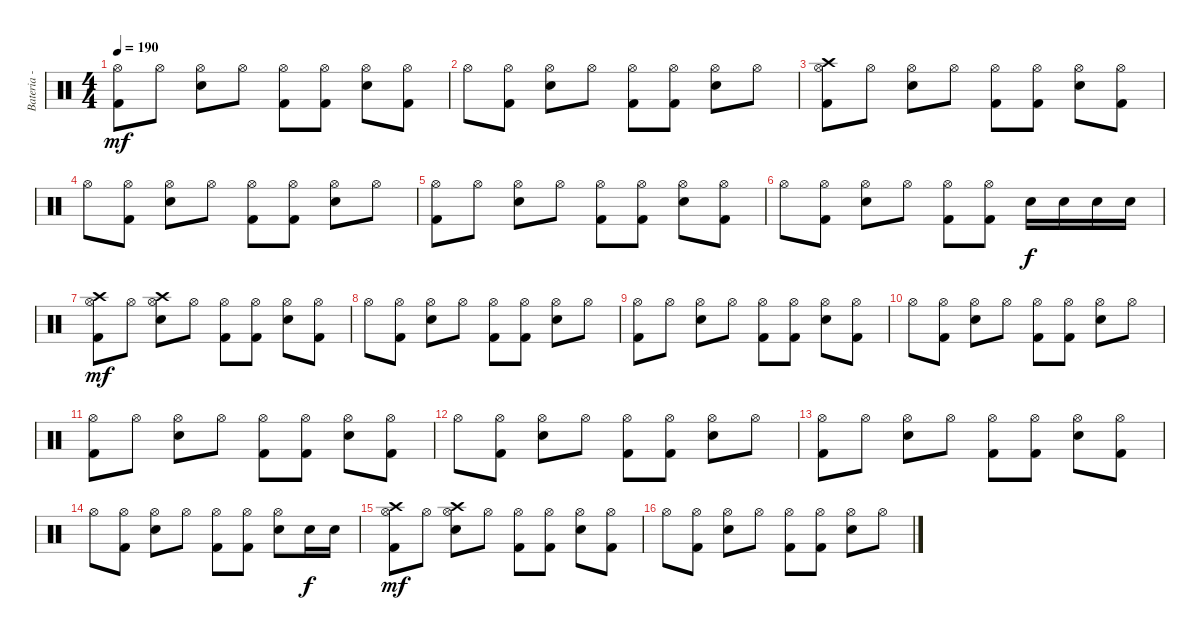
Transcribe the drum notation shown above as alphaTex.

\track ("Bateria - Larzon" "Bateria - ") {instrument percussion}
\staff {score}
\articulation defaults
\ts (4 4)
\tempo 190
\clef neutral
\ks c
("Kick (hit) 2" "Hi-Hat (open)").8{dy mf} "Hi-Hat (open)".8 ("Electric Snare (hit)" "Hi-Hat (open)").8 "Hi-Hat (open)".8 ("Kick (hit) 2" "Hi-Hat (open)").8 ("Kick (hit) 2" "Hi-Hat (open)").8 ("Electric Snare (hit)" "Hi-Hat (open)").8 ("Kick (hit) 2" "Hi-Hat (open)").8 |
"Hi-Hat (open)".8 ("Kick (hit) 2" "Hi-Hat (open)").8 ("Electric Snare (hit)" "Hi-Hat (open)").8 "Hi-Hat (open)".8 ("Kick (hit) 2" "Hi-Hat (open)").8 ("Kick (hit) 2" "Hi-Hat (open)").8 ("Electric Snare (hit)" "Hi-Hat (open)").8 "Hi-Hat (open)".8 |
("Kick (hit) 2" "Hi-Hat (open)" "Crash high (hit)").8 "Hi-Hat (open)".8 ("Electric Snare (hit)" "Hi-Hat (open)").8 "Hi-Hat (open)".8 ("Kick (hit) 2" "Hi-Hat (open)").8 ("Kick (hit) 2" "Hi-Hat (open)").8 ("Electric Snare (hit)" "Hi-Hat (open)").8 ("Kick (hit) 2" "Hi-Hat (open)").8 |
"Hi-Hat (open)".8 ("Kick (hit) 2" "Hi-Hat (open)").8 ("Electric Snare (hit)" "Hi-Hat (open)").8 "Hi-Hat (open)".8 ("Kick (hit) 2" "Hi-Hat (open)").8 ("Kick (hit) 2" "Hi-Hat (open)").8 ("Electric Snare (hit)" "Hi-Hat (open)").8 "Hi-Hat (open)".8 |
("Kick (hit) 2" "Hi-Hat (open)").8 "Hi-Hat (open)".8 ("Electric Snare (hit)" "Hi-Hat (open)").8 "Hi-Hat (open)".8 ("Kick (hit) 2" "Hi-Hat (open)").8 ("Kick (hit) 2" "Hi-Hat (open)").8 ("Electric Snare (hit)" "Hi-Hat (open)").8 ("Kick (hit) 2" "Hi-Hat (open)").8 |
"Hi-Hat (open)".8 ("Kick (hit) 2" "Hi-Hat (open)").8 ("Electric Snare (hit)" "Hi-Hat (open)").8 "Hi-Hat (open)".8 ("Kick (hit) 2" "Hi-Hat (open)").8 ("Kick (hit) 2" "Hi-Hat (open)").8 "Electric Snare (hit)".16{dy f} "Electric Snare (hit)".16 "Electric Snare (hit)".16 "Electric Snare (hit)".16 |
("Kick (hit) 2" "Hi-Hat (open)" "Crash high (hit)").8{dy mf} "Hi-Hat (open)".8 ("Electric Snare (hit)" "Hi-Hat (open)" "Crash high (hit)").8 "Hi-Hat (open)".8 ("Kick (hit) 2" "Hi-Hat (open)").8 ("Kick (hit) 2" "Hi-Hat (open)").8 ("Electric Snare (hit)" "Hi-Hat (open)").8 ("Kick (hit) 2" "Hi-Hat (open)").8 |
"Hi-Hat (open)".8 ("Kick (hit) 2" "Hi-Hat (open)").8 ("Electric Snare (hit)" "Hi-Hat (open)").8 "Hi-Hat (open)".8 ("Kick (hit) 2" "Hi-Hat (open)").8 ("Kick (hit) 2" "Hi-Hat (open)").8 ("Electric Snare (hit)" "Hi-Hat (open)").8 "Hi-Hat (open)".8 |
("Kick (hit) 2" "Hi-Hat (open)").8 "Hi-Hat (open)".8 ("Electric Snare (hit)" "Hi-Hat (open)").8 "Hi-Hat (open)".8 ("Kick (hit) 2" "Hi-Hat (open)").8 ("Kick (hit) 2" "Hi-Hat (open)").8 ("Electric Snare (hit)" "Hi-Hat (open)").8 ("Kick (hit) 2" "Hi-Hat (open)").8 |
"Hi-Hat (open)".8 ("Kick (hit) 2" "Hi-Hat (open)").8 ("Electric Snare (hit)" "Hi-Hat (open)").8 "Hi-Hat (open)".8 ("Kick (hit) 2" "Hi-Hat (open)").8 ("Kick (hit) 2" "Hi-Hat (open)").8 ("Electric Snare (hit)" "Hi-Hat (open)").8 "Hi-Hat (open)".8 |
("Kick (hit) 2" "Hi-Hat (open)").8 "Hi-Hat (open)".8 ("Electric Snare (hit)" "Hi-Hat (open)").8 "Hi-Hat (open)".8 ("Kick (hit) 2" "Hi-Hat (open)").8 ("Kick (hit) 2" "Hi-Hat (open)").8 ("Electric Snare (hit)" "Hi-Hat (open)").8 ("Kick (hit) 2" "Hi-Hat (open)").8 |
"Hi-Hat (open)".8 ("Kick (hit) 2" "Hi-Hat (open)").8 ("Electric Snare (hit)" "Hi-Hat (open)").8 "Hi-Hat (open)".8 ("Kick (hit) 2" "Hi-Hat (open)").8 ("Kick (hit) 2" "Hi-Hat (open)").8 ("Electric Snare (hit)" "Hi-Hat (open)").8 "Hi-Hat (open)".8 |
("Kick (hit) 2" "Hi-Hat (open)").8 "Hi-Hat (open)".8 ("Electric Snare (hit)" "Hi-Hat (open)").8 "Hi-Hat (open)".8 ("Kick (hit) 2" "Hi-Hat (open)").8 ("Kick (hit) 2" "Hi-Hat (open)").8 ("Electric Snare (hit)" "Hi-Hat (open)").8 ("Kick (hit) 2" "Hi-Hat (open)").8 |
"Hi-Hat (open)".8 ("Kick (hit) 2" "Hi-Hat (open)").8 ("Electric Snare (hit)" "Hi-Hat (open)").8 "Hi-Hat (open)".8 ("Kick (hit) 2" "Hi-Hat (open)").8 ("Kick (hit) 2" "Hi-Hat (open)").8 ("Electric Snare (hit)" "Hi-Hat (open)").8 "Electric Snare (hit)".16{dy f} "Electric Snare (hit)".16 |
("Kick (hit) 2" "Hi-Hat (open)" "Crash high (hit)").8{dy mf} "Hi-Hat (open)".8 ("Electric Snare (hit)" "Hi-Hat (open)" "Crash high (hit)").8 "Hi-Hat (open)".8 ("Kick (hit) 2" "Hi-Hat (open)").8 ("Kick (hit) 2" "Hi-Hat (open)").8 ("Electric Snare (hit)" "Hi-Hat (open)").8 ("Kick (hit) 2" "Hi-Hat (open)").8 |
"Hi-Hat (open)".8 ("Kick (hit) 2" "Hi-Hat (open)").8 ("Electric Snare (hit)" "Hi-Hat (open)").8 "Hi-Hat (open)".8 ("Kick (hit) 2" "Hi-Hat (open)").8 ("Kick (hit) 2" "Hi-Hat (open)").8 ("Electric Snare (hit)" "Hi-Hat (open)").8 "Hi-Hat (open)".8
